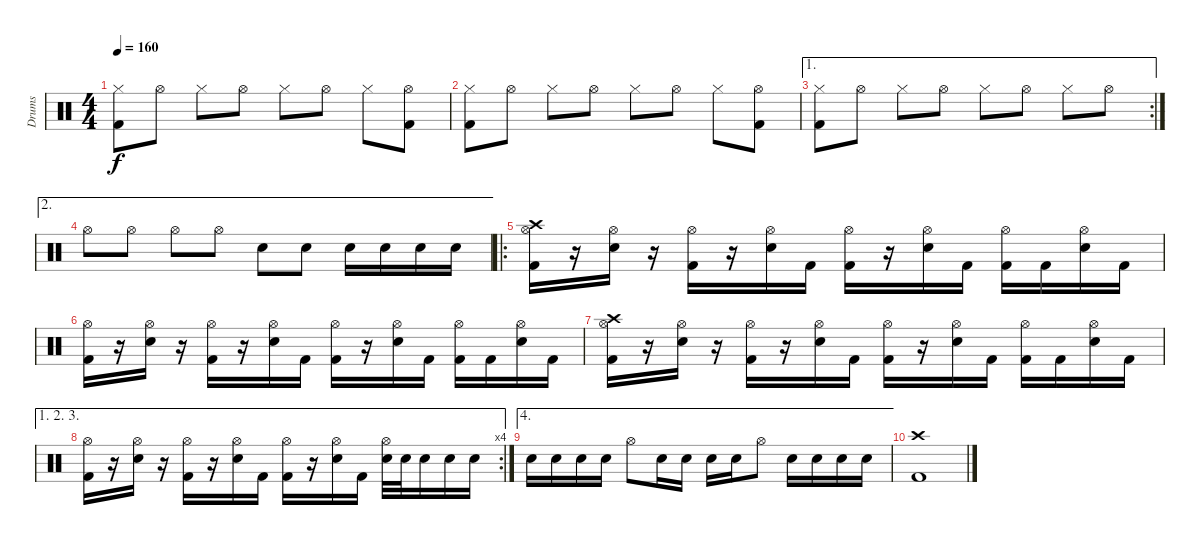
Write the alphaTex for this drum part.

\track ("Drums" "Drums") {instrument percussion}
\staff {score}
\articulation defaults
\ts (4 4)
\tempo 160
\clef neutral
\ks c
("Hi-Hat (closed)" "Kick (hit) 2").8{dy f} "Hi-Hat (open)".8 "Hi-Hat (closed)".8 "Hi-Hat (open)".8 "Hi-Hat (closed)".8 "Hi-Hat (open)".8 "Hi-Hat (closed)".8 ("Hi-Hat (open)" "Kick (hit) 2").8 |
("Hi-Hat (closed)" "Kick (hit) 2").8 "Hi-Hat (open)".8 "Hi-Hat (closed)".8 "Hi-Hat (open)".8 "Hi-Hat (closed)".8 "Hi-Hat (open)".8 "Hi-Hat (closed)".8 ("Hi-Hat (open)" "Kick (hit) 2").8 |
\ae 1
\rc 2
("Hi-Hat (closed)" "Kick (hit) 2").8 "Hi-Hat (open)".8 "Hi-Hat (closed)".8 "Hi-Hat (open)".8 "Hi-Hat (closed)".8 "Hi-Hat (open)".8 "Hi-Hat (closed)".8 "Hi-Hat (open)".8 |
\ae 2 "Hi-Hat (open)".8 "Hi-Hat (open)".8 "Hi-Hat (open)".8 "Hi-Hat (open)".8 "Snare (hit) 2".8 "Snare (hit) 2".8 "Snare (hit) 2".16 "Snare (hit) 2".16 "Snare (hit) 2".16 "Snare (hit) 2".16
|
\ro
("Hi-Hat (open)" "Kick (hit) 2" "Crash high (hit)").16 r.16 ("Hi-Hat (open)" "Snare (hit) 2").16 r.16 ("Hi-Hat (open)" "Kick (hit) 2").16 r.16 ("Hi-Hat (open)" "Snare (hit) 2").16 "Kick (hit) 2".16 ("Hi-Hat (open)" "Kick (hit) 2").16 r.16 ("Hi-Hat (open)" "Snare (hit) 2").16 "Kick (hit) 2".16 ("Hi-Hat (open)" "Kick (hit) 2").16 "Kick (hit) 2".16 ("Hi-Hat (open)" "Snare (hit) 2").16 "Kick (hit) 2".16 |
("Hi-Hat (open)" "Kick (hit) 2").16 r.16 ("Hi-Hat (open)" "Snare (hit) 2").16 r.16 ("Hi-Hat (open)" "Kick (hit) 2").16 r.16 ("Hi-Hat (open)" "Snare (hit) 2").16 "Kick (hit) 2".16 ("Hi-Hat (open)" "Kick (hit) 2").16 r.16 ("Hi-Hat (open)" "Snare (hit) 2").16 "Kick (hit) 2".16 ("Hi-Hat (open)" "Kick (hit) 2").16 "Kick (hit) 2".16 ("Hi-Hat (open)" "Snare (hit) 2").16 "Kick (hit) 2".16 |
("Hi-Hat (open)" "Kick (hit) 2" "Crash high (hit)").16 r.16 ("Hi-Hat (open)" "Snare (hit) 2").16 r.16 ("Hi-Hat (open)" "Kick (hit) 2").16 r.16 ("Hi-Hat (open)" "Snare (hit) 2").16 "Kick (hit) 2".16 ("Hi-Hat (open)" "Kick (hit) 2").16 r.16 ("Hi-Hat (open)" "Snare (hit) 2").16 "Kick (hit) 2".16 ("Hi-Hat (open)" "Kick (hit) 2").16 "Kick (hit) 2".16 ("Hi-Hat (open)" "Snare (hit) 2").16 "Kick (hit) 2".16 |
\ae (1 2 3)
\rc 4
("Hi-Hat (open)" "Kick (hit) 2").16 r.16 ("Hi-Hat (open)" "Snare (hit) 2").16 r.16 ("Hi-Hat (open)" "Kick (hit) 2").16 r.16 ("Hi-Hat (open)" "Snare (hit) 2").16 "Kick (hit) 2".16 ("Hi-Hat (open)" "Kick (hit) 2").16 r.16 ("Hi-Hat (open)" "Snare (hit) 2").16 "Kick (hit) 2".16 ("Hi-Hat (open)" "Snare (hit) 2").32 "Snare (hit) 2".32 "Snare (hit) 2".16 "Snare (hit) 2".16 "Snare (hit) 2".16 |
\ae 4 "Snare (hit) 2".16 "Snare (hit) 2".16 "Snare (hit) 2".16 "Snare (hit) 2".16 "Hi-Hat (open)".8 "Snare (hit) 2".16 "Snare (hit) 2".16 "Snare (hit) 2".16 "Snare (hit) 2".16 "Hi-Hat (open)".8 "Snare (hit) 2".16 "Snare (hit) 2".16 "Snare (hit) 2".16 "Snare (hit) 2".16
|
("Kick (hit) 2" "Crash high (hit)").1
